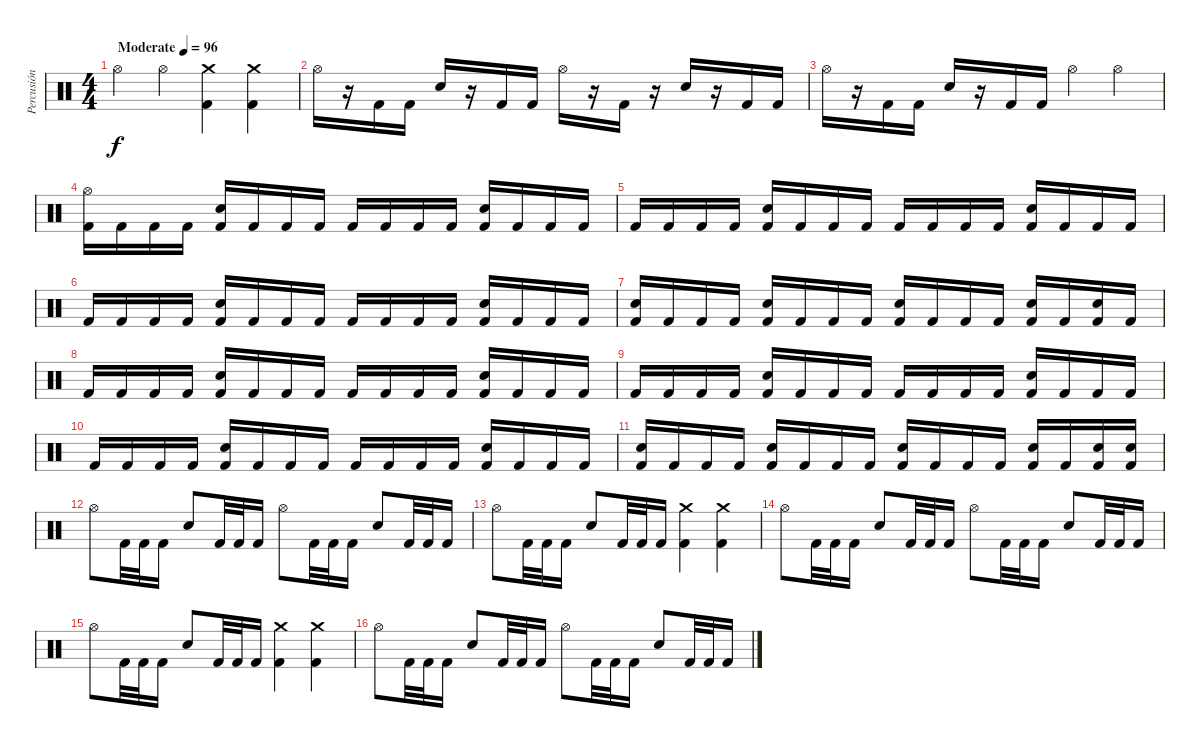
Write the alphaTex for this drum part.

\track ("Percusión" "Percusión") {instrument percussion}
\staff {score}
\articulation defaults
\ts (4 4)
\tempo (96 "Moderate")
\clef neutral
\ks c "Hi-Hat (open)".4{dy f} "Hi-Hat (open)".4
("Crash medium (hit)" "Kick (hit) 2").4 ("Crash medium (hit)" "Kick (hit) 2").4 |
"Hi-Hat (open)".16 r.16 "Kick (hit) 2".16 "Kick (hit) 2".16 "Snare (hit) 2".16 r.16 "Kick (hit) 2".16 "Kick (hit) 2".16 "Hi-Hat (open)".16 r.16 "Kick (hit) 2".16 r.16 "Snare (hit) 2".16 r.16 "Kick (hit) 2".16 "Kick (hit) 2".16 |
"Hi-Hat (open)".16 r.16 "Kick (hit) 2".16 "Kick (hit) 2".16 "Snare (hit) 2".16 r.16 "Kick (hit) 2".16 "Kick (hit) 2".16 "Hi-Hat (open)".4 "Hi-Hat (open)".4 |
("Kick (hit) 2" "Hi-Hat (open)").16 "Kick (hit) 2".16 "Kick (hit) 2".16 "Kick (hit) 2".16 ("Kick (hit) 2" "Snare (hit) 2").16 "Kick (hit) 2".16 "Kick (hit) 2".16 "Kick (hit) 2".16 "Kick (hit) 2".16 "Kick (hit) 2".16 "Kick (hit) 2".16 "Kick (hit) 2".16 ("Kick (hit) 2" "Snare (hit) 2").16 "Kick (hit) 2".16 "Kick (hit) 2".16 "Kick (hit) 2".16 |
"Kick (hit) 2".16 "Kick (hit) 2".16 "Kick (hit) 2".16 "Kick (hit) 2".16 ("Kick (hit) 2" "Snare (hit) 2").16 "Kick (hit) 2".16 "Kick (hit) 2".16 "Kick (hit) 2".16 "Kick (hit) 2".16 "Kick (hit) 2".16 "Kick (hit) 2".16 "Kick (hit) 2".16 ("Kick (hit) 2" "Snare (hit) 2").16 "Kick (hit) 2".16 "Kick (hit) 2".16 "Kick (hit) 2".16 |
"Kick (hit) 2".16 "Kick (hit) 2".16 "Kick (hit) 2".16 "Kick (hit) 2".16 ("Kick (hit) 2" "Snare (hit) 2").16 "Kick (hit) 2".16 "Kick (hit) 2".16 "Kick (hit) 2".16 "Kick (hit) 2".16 "Kick (hit) 2".16 "Kick (hit) 2".16 "Kick (hit) 2".16 ("Kick (hit) 2" "Snare (hit) 2").16 "Kick (hit) 2".16 "Kick (hit) 2".16 "Kick (hit) 2".16 |
("Kick (hit) 2" "Snare (hit) 2").16 "Kick (hit) 2".16 "Kick (hit) 2".16 "Kick (hit) 2".16 ("Kick (hit) 2" "Snare (hit) 2").16 "Kick (hit) 2".16 "Kick (hit) 2".16 "Kick (hit) 2".16 ("Kick (hit) 2" "Snare (hit) 2").16 "Kick (hit) 2".16 "Kick (hit) 2".16 "Kick (hit) 2".16 ("Kick (hit) 2" "Snare (hit) 2").16 "Kick (hit) 2".16 ("Kick (hit) 2" "Snare (hit) 2").16 "Kick (hit) 2".16 |
"Kick (hit) 2".16 "Kick (hit) 2".16 "Kick (hit) 2".16 "Kick (hit) 2".16 ("Kick (hit) 2" "Snare (hit) 2").16 "Kick (hit) 2".16 "Kick (hit) 2".16 "Kick (hit) 2".16 "Kick (hit) 2".16 "Kick (hit) 2".16 "Kick (hit) 2".16 "Kick (hit) 2".16 ("Kick (hit) 2" "Snare (hit) 2").16 "Kick (hit) 2".16 "Kick (hit) 2".16 "Kick (hit) 2".16 |
"Kick (hit) 2".16 "Kick (hit) 2".16 "Kick (hit) 2".16 "Kick (hit) 2".16 ("Kick (hit) 2" "Snare (hit) 2").16 "Kick (hit) 2".16 "Kick (hit) 2".16 "Kick (hit) 2".16 "Kick (hit) 2".16 "Kick (hit) 2".16 "Kick (hit) 2".16 "Kick (hit) 2".16 ("Kick (hit) 2" "Snare (hit) 2").16 "Kick (hit) 2".16 "Kick (hit) 2".16 "Kick (hit) 2".16 |
"Kick (hit) 2".16 "Kick (hit) 2".16 "Kick (hit) 2".16 "Kick (hit) 2".16 ("Kick (hit) 2" "Snare (hit) 2").16 "Kick (hit) 2".16 "Kick (hit) 2".16 "Kick (hit) 2".16 "Kick (hit) 2".16 "Kick (hit) 2".16 "Kick (hit) 2".16 "Kick (hit) 2".16 ("Kick (hit) 2" "Snare (hit) 2").16 "Kick (hit) 2".16 "Kick (hit) 2".16 "Kick (hit) 2".16 |
("Kick (hit) 2" "Snare (hit) 2").16 "Kick (hit) 2".16 "Kick (hit) 2".16 "Kick (hit) 2".16 ("Kick (hit) 2" "Snare (hit) 2").16 "Kick (hit) 2".16 "Kick (hit) 2".16 "Kick (hit) 2".16 ("Kick (hit) 2" "Snare (hit) 2").16 "Kick (hit) 2".16 "Kick (hit) 2".16 "Kick (hit) 2".16 ("Kick (hit) 2" "Snare (hit) 2").16 "Kick (hit) 2".16 ("Kick (hit) 2" "Snare (hit) 2").16 ("Kick (hit) 2" "Snare (hit) 2").16 |
"Hi-Hat (open)".8 "Kick (hit) 2".32 "Kick (hit) 2".32 "Kick (hit) 2".16 "Snare (hit) 2".8 "Kick (hit) 2".32 "Kick (hit) 2".32 "Kick (hit) 2".16 "Hi-Hat (open)".8 "Kick (hit) 2".32 "Kick (hit) 2".32 "Kick (hit) 2".16 "Snare (hit) 2".8 "Kick (hit) 2".32 "Kick (hit) 2".32 "Kick (hit) 2".16 |
"Hi-Hat (open)".8 "Kick (hit) 2".32 "Kick (hit) 2".32 "Kick (hit) 2".16 "Snare (hit) 2".8 "Kick (hit) 2".32 "Kick (hit) 2".32 "Kick (hit) 2".16 ("Kick (hit) 2" "Crash medium (hit)").4 ("Kick (hit) 2" "Crash medium (hit)").4 |
"Hi-Hat (open)".8 "Kick (hit) 2".32 "Kick (hit) 2".32 "Kick (hit) 2".16 "Snare (hit) 2".8 "Kick (hit) 2".32 "Kick (hit) 2".32 "Kick (hit) 2".16 "Hi-Hat (open)".8 "Kick (hit) 2".32 "Kick (hit) 2".32 "Kick (hit) 2".16 "Snare (hit) 2".8 "Kick (hit) 2".32 "Kick (hit) 2".32 "Kick (hit) 2".16 |
"Hi-Hat (open)".8 "Kick (hit) 2".32 "Kick (hit) 2".32 "Kick (hit) 2".16 "Snare (hit) 2".8 "Kick (hit) 2".32 "Kick (hit) 2".32 "Kick (hit) 2".16 ("Kick (hit) 2" "Crash medium (hit)").4 ("Kick (hit) 2" "Crash medium (hit)").4 |
"Hi-Hat (open)".8 "Kick (hit) 2".32 "Kick (hit) 2".32 "Kick (hit) 2".16 "Snare (hit) 2".8 "Kick (hit) 2".32 "Kick (hit) 2".32 "Kick (hit) 2".16 "Hi-Hat (open)".8 "Kick (hit) 2".32 "Kick (hit) 2".32 "Kick (hit) 2".16 "Snare (hit) 2".8 "Kick (hit) 2".32 "Kick (hit) 2".32 "Kick (hit) 2".16
